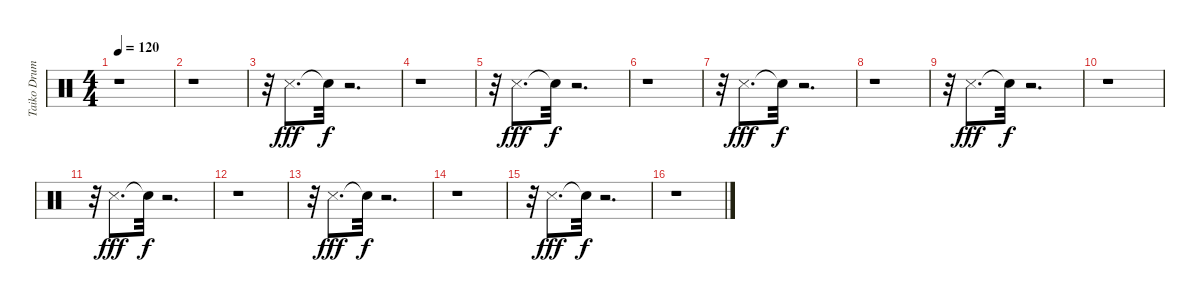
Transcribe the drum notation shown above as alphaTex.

\track ("Taiko Drum" "Taiko Drum") {instrument percussion}
\staff {score}
\articulation defaults
\ts (4 4)
\tempo 120
\clef neutral
\ks c
r.1{dy f} |
r.1 |
r.32 "Metronome (hit)".8{d dy fff} "Snare (hit)"{t}.32{dy f} r.2{d} |
r.1 |
r.32 "Metronome (hit)".8{d dy fff} "Snare (hit)"{t}.32{dy f} r.2{d} |
r.1 |
r.32 "Metronome (hit)".8{d dy fff} "Snare (hit)"{t}.32{dy f} r.2{d} |
r.1 |
r.32 "Metronome (hit)".8{d dy fff} "Snare (hit)"{t}.32{dy f} r.2{d} |
r.1 |
r.32 "Metronome (hit)".8{d dy fff} "Snare (hit)"{t}.32{dy f} r.2{d} |
r.1 |
r.32 "Metronome (hit)".8{d dy fff} "Snare (hit)"{t}.32{dy f} r.2{d} |
r.1 |
r.32 "Metronome (hit)".8{d dy fff} "Snare (hit)"{t}.32{dy f} r.2{d} |
r.1
